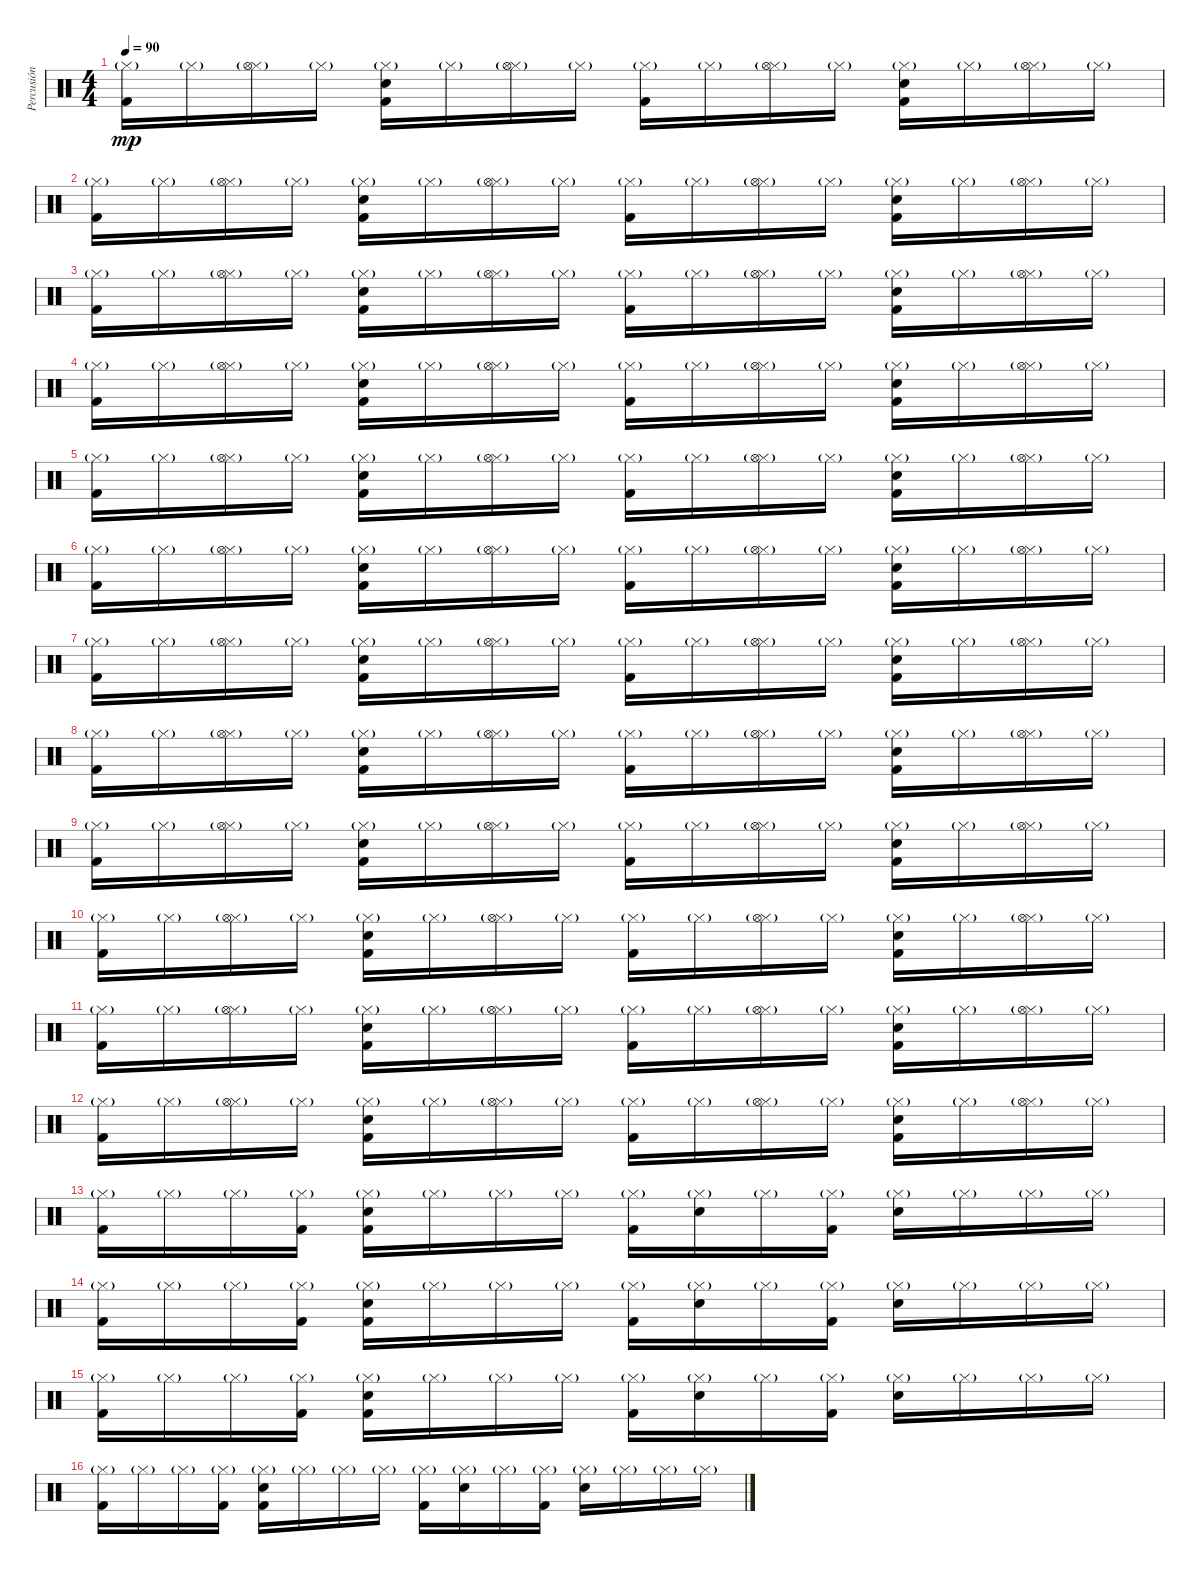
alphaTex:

\track ("Percusión" "Percusión") {instrument percussion}
\staff {score}
\articulation defaults
\ts (4 4)
\tempo 90
\clef neutral
\ks c
("Kick (hit) 2" "Hi-Hat (closed)"{g}).16{dy mp} "Hi-Hat (closed)"{g}.16 ("Hi-Hat (closed)"{g} "Hi-Hat (open)").16 "Hi-Hat (closed)"{g}.16 ("Kick (hit) 2" "Snare (hit) 2" "Hi-Hat (closed)"{g}).16 "Hi-Hat (closed)"{g}.16 ("Hi-Hat (closed)"{g} "Hi-Hat (open)").16 "Hi-Hat (closed)"{g}.16 ("Kick (hit) 2" "Hi-Hat (closed)"{g}).16 "Hi-Hat (closed)"{g}.16 ("Hi-Hat (closed)"{g} "Hi-Hat (open)").16 "Hi-Hat (closed)"{g}.16 ("Kick (hit) 2" "Snare (hit) 2" "Hi-Hat (closed)"{g}).16 "Hi-Hat (closed)"{g}.16 ("Hi-Hat (closed)"{g} "Hi-Hat (open)").16 "Hi-Hat (closed)"{g}.16 |
("Kick (hit) 2" "Hi-Hat (closed)"{g}).16 "Hi-Hat (closed)"{g}.16 ("Hi-Hat (closed)"{g} "Hi-Hat (open)").16 "Hi-Hat (closed)"{g}.16 ("Kick (hit) 2" "Snare (hit) 2" "Hi-Hat (closed)"{g}).16 "Hi-Hat (closed)"{g}.16 ("Hi-Hat (closed)"{g} "Hi-Hat (open)").16 "Hi-Hat (closed)"{g}.16 ("Kick (hit) 2" "Hi-Hat (closed)"{g}).16 "Hi-Hat (closed)"{g}.16 ("Hi-Hat (closed)"{g} "Hi-Hat (open)").16 "Hi-Hat (closed)"{g}.16 ("Kick (hit) 2" "Snare (hit) 2" "Hi-Hat (closed)"{g}).16 "Hi-Hat (closed)"{g}.16 ("Hi-Hat (closed)"{g} "Hi-Hat (open)").16 "Hi-Hat (closed)"{g}.16 |
("Kick (hit) 2" "Hi-Hat (closed)"{g}).16 "Hi-Hat (closed)"{g}.16 ("Hi-Hat (closed)"{g} "Hi-Hat (open)").16 "Hi-Hat (closed)"{g}.16 ("Kick (hit) 2" "Snare (hit) 2" "Hi-Hat (closed)"{g}).16 "Hi-Hat (closed)"{g}.16 ("Hi-Hat (closed)"{g} "Hi-Hat (open)").16 "Hi-Hat (closed)"{g}.16 ("Kick (hit) 2" "Hi-Hat (closed)"{g}).16 "Hi-Hat (closed)"{g}.16 ("Hi-Hat (closed)"{g} "Hi-Hat (open)").16 "Hi-Hat (closed)"{g}.16 ("Kick (hit) 2" "Snare (hit) 2" "Hi-Hat (closed)"{g}).16 "Hi-Hat (closed)"{g}.16 ("Hi-Hat (closed)"{g} "Hi-Hat (open)").16 "Hi-Hat (closed)"{g}.16 |
("Kick (hit) 2" "Hi-Hat (closed)"{g}).16 "Hi-Hat (closed)"{g}.16 ("Hi-Hat (closed)"{g} "Hi-Hat (open)").16 "Hi-Hat (closed)"{g}.16 ("Kick (hit) 2" "Snare (hit) 2" "Hi-Hat (closed)"{g}).16 "Hi-Hat (closed)"{g}.16 ("Hi-Hat (closed)"{g} "Hi-Hat (open)").16 "Hi-Hat (closed)"{g}.16 ("Kick (hit) 2" "Hi-Hat (closed)"{g}).16 "Hi-Hat (closed)"{g}.16 ("Hi-Hat (closed)"{g} "Hi-Hat (open)").16 "Hi-Hat (closed)"{g}.16 ("Kick (hit) 2" "Snare (hit) 2" "Hi-Hat (closed)"{g}).16 "Hi-Hat (closed)"{g}.16 ("Hi-Hat (closed)"{g} "Hi-Hat (open)").16 "Hi-Hat (closed)"{g}.16 |
("Kick (hit) 2" "Hi-Hat (closed)"{g}).16 "Hi-Hat (closed)"{g}.16 ("Hi-Hat (closed)"{g} "Hi-Hat (open)").16 "Hi-Hat (closed)"{g}.16 ("Kick (hit) 2" "Snare (hit) 2" "Hi-Hat (closed)"{g}).16 "Hi-Hat (closed)"{g}.16 ("Hi-Hat (closed)"{g} "Hi-Hat (open)").16 "Hi-Hat (closed)"{g}.16 ("Kick (hit) 2" "Hi-Hat (closed)"{g}).16 "Hi-Hat (closed)"{g}.16 ("Hi-Hat (closed)"{g} "Hi-Hat (open)").16 "Hi-Hat (closed)"{g}.16 ("Kick (hit) 2" "Snare (hit) 2" "Hi-Hat (closed)"{g}).16 "Hi-Hat (closed)"{g}.16 ("Hi-Hat (closed)"{g} "Hi-Hat (open)").16 "Hi-Hat (closed)"{g}.16 |
("Kick (hit) 2" "Hi-Hat (closed)"{g}).16 "Hi-Hat (closed)"{g}.16 ("Hi-Hat (closed)"{g} "Hi-Hat (open)").16 "Hi-Hat (closed)"{g}.16 ("Kick (hit) 2" "Snare (hit) 2" "Hi-Hat (closed)"{g}).16 "Hi-Hat (closed)"{g}.16 ("Hi-Hat (closed)"{g} "Hi-Hat (open)").16 "Hi-Hat (closed)"{g}.16 ("Kick (hit) 2" "Hi-Hat (closed)"{g}).16 "Hi-Hat (closed)"{g}.16 ("Hi-Hat (closed)"{g} "Hi-Hat (open)").16 "Hi-Hat (closed)"{g}.16 ("Kick (hit) 2" "Snare (hit) 2" "Hi-Hat (closed)"{g}).16 "Hi-Hat (closed)"{g}.16 ("Hi-Hat (closed)"{g} "Hi-Hat (open)").16 "Hi-Hat (closed)"{g}.16 |
("Kick (hit) 2" "Hi-Hat (closed)"{g}).16 "Hi-Hat (closed)"{g}.16 ("Hi-Hat (closed)"{g} "Hi-Hat (open)").16 "Hi-Hat (closed)"{g}.16 ("Kick (hit) 2" "Snare (hit) 2" "Hi-Hat (closed)"{g}).16 "Hi-Hat (closed)"{g}.16 ("Hi-Hat (closed)"{g} "Hi-Hat (open)").16 "Hi-Hat (closed)"{g}.16 ("Kick (hit) 2" "Hi-Hat (closed)"{g}).16 "Hi-Hat (closed)"{g}.16 ("Hi-Hat (closed)"{g} "Hi-Hat (open)").16 "Hi-Hat (closed)"{g}.16 ("Kick (hit) 2" "Snare (hit) 2" "Hi-Hat (closed)"{g}).16 "Hi-Hat (closed)"{g}.16 ("Hi-Hat (closed)"{g} "Hi-Hat (open)").16 "Hi-Hat (closed)"{g}.16 |
("Kick (hit) 2" "Hi-Hat (closed)"{g}).16 "Hi-Hat (closed)"{g}.16 ("Hi-Hat (closed)"{g} "Hi-Hat (open)").16 "Hi-Hat (closed)"{g}.16 ("Kick (hit) 2" "Snare (hit) 2" "Hi-Hat (closed)"{g}).16 "Hi-Hat (closed)"{g}.16 ("Hi-Hat (closed)"{g} "Hi-Hat (open)").16 "Hi-Hat (closed)"{g}.16 ("Kick (hit) 2" "Hi-Hat (closed)"{g}).16 "Hi-Hat (closed)"{g}.16 ("Hi-Hat (closed)"{g} "Hi-Hat (open)").16 "Hi-Hat (closed)"{g}.16 ("Kick (hit) 2" "Snare (hit) 2" "Hi-Hat (closed)"{g}).16 "Hi-Hat (closed)"{g}.16 ("Hi-Hat (closed)"{g} "Hi-Hat (open)").16 "Hi-Hat (closed)"{g}.16 |
("Kick (hit) 2" "Hi-Hat (closed)"{g}).16 "Hi-Hat (closed)"{g}.16 ("Hi-Hat (closed)"{g} "Hi-Hat (open)").16 "Hi-Hat (closed)"{g}.16 ("Kick (hit) 2" "Snare (hit) 2" "Hi-Hat (closed)"{g}).16 "Hi-Hat (closed)"{g}.16 ("Hi-Hat (closed)"{g} "Hi-Hat (open)").16 "Hi-Hat (closed)"{g}.16 ("Kick (hit) 2" "Hi-Hat (closed)"{g}).16 "Hi-Hat (closed)"{g}.16 ("Hi-Hat (closed)"{g} "Hi-Hat (open)").16 "Hi-Hat (closed)"{g}.16 ("Kick (hit) 2" "Snare (hit) 2" "Hi-Hat (closed)"{g}).16 "Hi-Hat (closed)"{g}.16 ("Hi-Hat (closed)"{g} "Hi-Hat (open)").16 "Hi-Hat (closed)"{g}.16 |
("Kick (hit) 2" "Hi-Hat (closed)"{g}).16 "Hi-Hat (closed)"{g}.16 ("Hi-Hat (closed)"{g} "Hi-Hat (open)").16 "Hi-Hat (closed)"{g}.16 ("Kick (hit) 2" "Snare (hit) 2" "Hi-Hat (closed)"{g}).16 "Hi-Hat (closed)"{g}.16 ("Hi-Hat (closed)"{g} "Hi-Hat (open)").16 "Hi-Hat (closed)"{g}.16 ("Kick (hit) 2" "Hi-Hat (closed)"{g}).16 "Hi-Hat (closed)"{g}.16 ("Hi-Hat (closed)"{g} "Hi-Hat (open)").16 "Hi-Hat (closed)"{g}.16 ("Kick (hit) 2" "Snare (hit) 2" "Hi-Hat (closed)"{g}).16 "Hi-Hat (closed)"{g}.16 ("Hi-Hat (closed)"{g} "Hi-Hat (open)").16 "Hi-Hat (closed)"{g}.16 |
("Kick (hit) 2" "Hi-Hat (closed)"{g}).16 "Hi-Hat (closed)"{g}.16 ("Hi-Hat (closed)"{g} "Hi-Hat (open)").16 "Hi-Hat (closed)"{g}.16 ("Kick (hit) 2" "Snare (hit) 2" "Hi-Hat (closed)"{g}).16 "Hi-Hat (closed)"{g}.16 ("Hi-Hat (closed)"{g} "Hi-Hat (open)").16 "Hi-Hat (closed)"{g}.16 ("Kick (hit) 2" "Hi-Hat (closed)"{g}).16 "Hi-Hat (closed)"{g}.16 ("Hi-Hat (closed)"{g} "Hi-Hat (open)").16 "Hi-Hat (closed)"{g}.16 ("Kick (hit) 2" "Snare (hit) 2" "Hi-Hat (closed)"{g}).16 "Hi-Hat (closed)"{g}.16 ("Hi-Hat (closed)"{g} "Hi-Hat (open)").16 "Hi-Hat (closed)"{g}.16 |
("Kick (hit) 2" "Hi-Hat (closed)"{g}).16 "Hi-Hat (closed)"{g}.16 ("Hi-Hat (closed)"{g} "Hi-Hat (open)").16 "Hi-Hat (closed)"{g}.16 ("Kick (hit) 2" "Snare (hit) 2" "Hi-Hat (closed)"{g}).16 "Hi-Hat (closed)"{g}.16 ("Hi-Hat (closed)"{g} "Hi-Hat (open)").16 "Hi-Hat (closed)"{g}.16 ("Kick (hit) 2" "Hi-Hat (closed)"{g}).16 "Hi-Hat (closed)"{g}.16 ("Hi-Hat (closed)"{g} "Hi-Hat (open)").16 "Hi-Hat (closed)"{g}.16 ("Kick (hit) 2" "Snare (hit) 2" "Hi-Hat (closed)"{g}).16 "Hi-Hat (closed)"{g}.16 ("Hi-Hat (closed)"{g} "Hi-Hat (open)").16 "Hi-Hat (closed)"{g}.16 |
("Kick (hit) 2" "Hi-Hat (closed)"{g}).16 "Hi-Hat (closed)"{g}.16 "Hi-Hat (closed)"{g}.16 ("Kick (hit) 2" "Hi-Hat (closed)"{g}).16 ("Kick (hit) 2" "Snare (hit) 2" "Hi-Hat (closed)"{g}).16 "Hi-Hat (closed)"{g}.16 "Hi-Hat (closed)"{g}.16 "Hi-Hat (closed)"{g}.16 ("Kick (hit) 2" "Hi-Hat (closed)"{g}).16 ("Snare (hit) 2" "Hi-Hat (closed)"{g}).16 "Hi-Hat (closed)"{g}.16 ("Kick (hit) 2" "Hi-Hat (closed)"{g}).16 ("Snare (hit) 2" "Hi-Hat (closed)"{g}).16 "Hi-Hat (closed)"{g}.16 "Hi-Hat (closed)"{g}.16 "Hi-Hat (closed)"{g}.16 |
("Kick (hit) 2" "Hi-Hat (closed)"{g}).16 "Hi-Hat (closed)"{g}.16 "Hi-Hat (closed)"{g}.16 ("Kick (hit) 2" "Hi-Hat (closed)"{g}).16 ("Kick (hit) 2" "Snare (hit) 2" "Hi-Hat (closed)"{g}).16 "Hi-Hat (closed)"{g}.16 "Hi-Hat (closed)"{g}.16 "Hi-Hat (closed)"{g}.16 ("Kick (hit) 2" "Hi-Hat (closed)"{g}).16 ("Snare (hit) 2" "Hi-Hat (closed)"{g}).16 "Hi-Hat (closed)"{g}.16 ("Kick (hit) 2" "Hi-Hat (closed)"{g}).16 ("Snare (hit) 2" "Hi-Hat (closed)"{g}).16 "Hi-Hat (closed)"{g}.16 "Hi-Hat (closed)"{g}.16 "Hi-Hat (closed)"{g}.16 |
("Kick (hit) 2" "Hi-Hat (closed)"{g}).16 "Hi-Hat (closed)"{g}.16 "Hi-Hat (closed)"{g}.16 ("Kick (hit) 2" "Hi-Hat (closed)"{g}).16 ("Kick (hit) 2" "Snare (hit) 2" "Hi-Hat (closed)"{g}).16 "Hi-Hat (closed)"{g}.16 "Hi-Hat (closed)"{g}.16 "Hi-Hat (closed)"{g}.16 ("Kick (hit) 2" "Hi-Hat (closed)"{g}).16 ("Snare (hit) 2" "Hi-Hat (closed)"{g}).16 "Hi-Hat (closed)"{g}.16 ("Kick (hit) 2" "Hi-Hat (closed)"{g}).16 ("Snare (hit) 2" "Hi-Hat (closed)"{g}).16 "Hi-Hat (closed)"{g}.16 "Hi-Hat (closed)"{g}.16 "Hi-Hat (closed)"{g}.16 |
("Kick (hit) 2" "Hi-Hat (closed)"{g}).16 "Hi-Hat (closed)"{g}.16 "Hi-Hat (closed)"{g}.16 ("Kick (hit) 2" "Hi-Hat (closed)"{g}).16 ("Kick (hit) 2" "Snare (hit) 2" "Hi-Hat (closed)"{g}).16 "Hi-Hat (closed)"{g}.16 "Hi-Hat (closed)"{g}.16 "Hi-Hat (closed)"{g}.16 ("Kick (hit) 2" "Hi-Hat (closed)"{g}).16 ("Snare (hit) 2" "Hi-Hat (closed)"{g}).16 "Hi-Hat (closed)"{g}.16 ("Kick (hit) 2" "Hi-Hat (closed)"{g}).16 ("Snare (hit) 2" "Hi-Hat (closed)"{g}).16 "Hi-Hat (closed)"{g}.16 "Hi-Hat (closed)"{g}.16 "Hi-Hat (closed)"{g}.16
